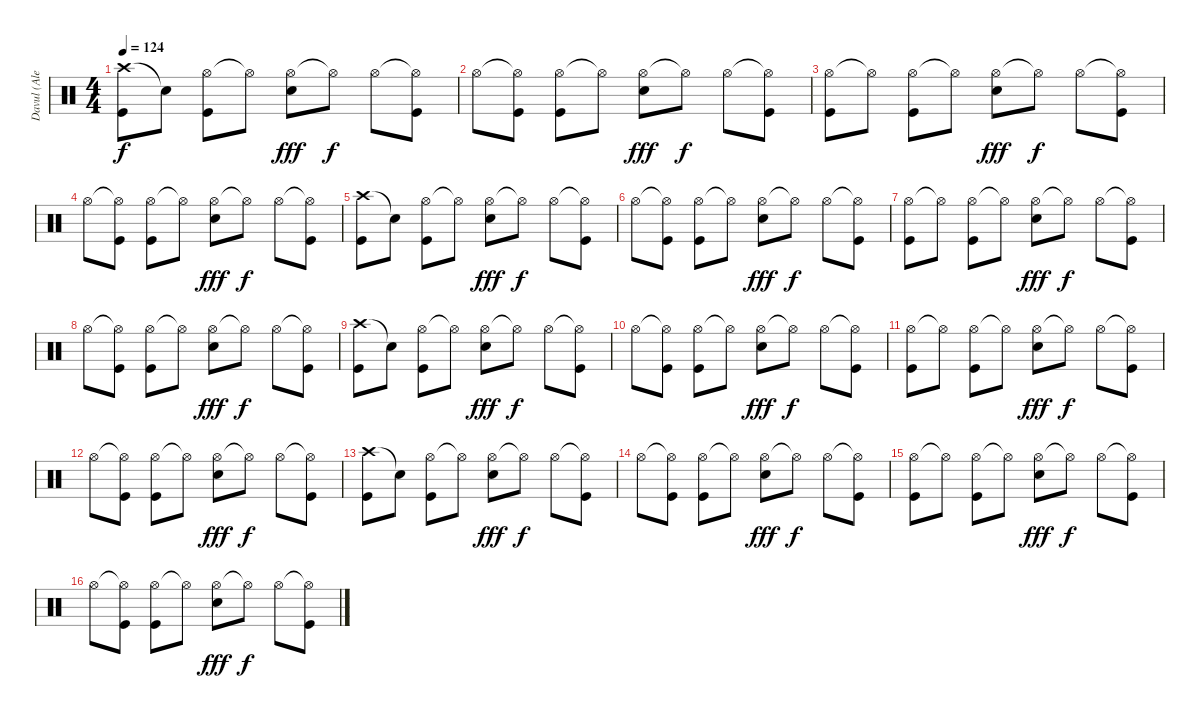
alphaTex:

\track ("Davul (Alen)" "Davul (Ale") {instrument percussion}
\staff {score}
\articulation defaults
\ts (4 4)
\tempo 124
\clef neutral
\ks c
("Crash high (hit)" "Kick (hit)").8{dy f} "Snare (hit)"{t}.8 ("Hi-Hat (open)" "Kick (hit)").8 "Hi-Hat (open)"{t}.8 ("Hi-Hat (open)" "Electric Snare (hit)").8{dy fff} "Hi-Hat (open)"{t}.8{dy f} "Hi-Hat (open)".8 ("Hi-Hat (open)"{t} "Kick (hit)").8 |
"Hi-Hat (open)".8 ("Hi-Hat (open)"{t} "Kick (hit)").8 ("Hi-Hat (open)" "Kick (hit)").8 "Hi-Hat (open)"{t}.8 ("Hi-Hat (open)" "Electric Snare (hit)").8{dy fff} "Hi-Hat (open)"{t}.8{dy f} "Hi-Hat (open)".8 ("Hi-Hat (open)"{t} "Kick (hit)").8 |
("Hi-Hat (open)" "Kick (hit)").8 "Hi-Hat (open)"{t}.8 ("Hi-Hat (open)" "Kick (hit)").8 "Hi-Hat (open)"{t}.8 ("Hi-Hat (open)" "Electric Snare (hit)").8{dy fff} "Hi-Hat (open)"{t}.8{dy f} "Hi-Hat (open)".8 ("Hi-Hat (open)"{t} "Kick (hit)").8 |
"Hi-Hat (open)".8 ("Hi-Hat (open)"{t} "Kick (hit)").8 ("Hi-Hat (open)" "Kick (hit)").8 "Hi-Hat (open)"{t}.8 ("Hi-Hat (open)" "Electric Snare (hit)").8{dy fff} "Hi-Hat (open)"{t}.8{dy f} "Hi-Hat (open)".8 ("Hi-Hat (open)"{t} "Kick (hit)").8 |
("Crash high (hit)" "Kick (hit)").8 "Snare (hit)"{t}.8 ("Hi-Hat (open)" "Kick (hit)").8 "Hi-Hat (open)"{t}.8 ("Hi-Hat (open)" "Electric Snare (hit)").8{dy fff} "Hi-Hat (open)"{t}.8{dy f} "Hi-Hat (open)".8 ("Hi-Hat (open)"{t} "Kick (hit)").8 |
"Hi-Hat (open)".8 ("Hi-Hat (open)"{t} "Kick (hit)").8 ("Hi-Hat (open)" "Kick (hit)").8 "Hi-Hat (open)"{t}.8 ("Hi-Hat (open)" "Electric Snare (hit)").8{dy fff} "Hi-Hat (open)"{t}.8{dy f} "Hi-Hat (open)".8 ("Hi-Hat (open)"{t} "Kick (hit)").8 |
("Hi-Hat (open)" "Kick (hit)").8 "Hi-Hat (open)"{t}.8 ("Hi-Hat (open)" "Kick (hit)").8 "Hi-Hat (open)"{t}.8 ("Hi-Hat (open)" "Electric Snare (hit)").8{dy fff} "Hi-Hat (open)"{t}.8{dy f} "Hi-Hat (open)".8 ("Hi-Hat (open)"{t} "Kick (hit)").8 |
"Hi-Hat (open)".8 ("Hi-Hat (open)"{t} "Kick (hit)").8 ("Hi-Hat (open)" "Kick (hit)").8 "Hi-Hat (open)"{t}.8 ("Hi-Hat (open)" "Electric Snare (hit)").8{dy fff} "Hi-Hat (open)"{t}.8{dy f} "Hi-Hat (open)".8 ("Hi-Hat (open)"{t} "Kick (hit)").8 |
("Crash high (hit)" "Kick (hit)").8 "Snare (hit)"{t}.8 ("Hi-Hat (open)" "Kick (hit)").8 "Hi-Hat (open)"{t}.8 ("Hi-Hat (open)" "Electric Snare (hit)").8{dy fff} "Hi-Hat (open)"{t}.8{dy f} "Hi-Hat (open)".8 ("Hi-Hat (open)"{t} "Kick (hit)").8 |
"Hi-Hat (open)".8 ("Hi-Hat (open)"{t} "Kick (hit)").8 ("Hi-Hat (open)" "Kick (hit)").8 "Hi-Hat (open)"{t}.8 ("Hi-Hat (open)" "Electric Snare (hit)").8{dy fff} "Hi-Hat (open)"{t}.8{dy f} "Hi-Hat (open)".8 ("Hi-Hat (open)"{t} "Kick (hit)").8 |
("Hi-Hat (open)" "Kick (hit)").8 "Hi-Hat (open)"{t}.8 ("Hi-Hat (open)" "Kick (hit)").8 "Hi-Hat (open)"{t}.8 ("Hi-Hat (open)" "Electric Snare (hit)").8{dy fff} "Hi-Hat (open)"{t}.8{dy f} "Hi-Hat (open)".8 ("Hi-Hat (open)"{t} "Kick (hit)").8 |
"Hi-Hat (open)".8 ("Hi-Hat (open)"{t} "Kick (hit)").8 ("Hi-Hat (open)" "Kick (hit)").8 "Hi-Hat (open)"{t}.8 ("Hi-Hat (open)" "Electric Snare (hit)").8{dy fff} "Hi-Hat (open)"{t}.8{dy f} "Hi-Hat (open)".8 ("Hi-Hat (open)"{t} "Kick (hit)").8 |
("Crash high (hit)" "Kick (hit)").8{volume 8} "Snare (hit)"{t}.8 ("Hi-Hat (open)" "Kick (hit)").8 "Hi-Hat (open)"{t}.8 ("Hi-Hat (open)" "Electric Snare (hit)").8{dy fff} "Hi-Hat (open)"{t}.8{dy f} "Hi-Hat (open)".8 ("Hi-Hat (open)"{t} "Kick (hit)").8 |
"Hi-Hat (open)".8 ("Hi-Hat (open)"{t} "Kick (hit)").8 ("Hi-Hat (open)" "Kick (hit)").8 "Hi-Hat (open)"{t}.8 ("Hi-Hat (open)" "Electric Snare (hit)").8{dy fff} "Hi-Hat (open)"{t}.8{dy f} "Hi-Hat (open)".8 ("Hi-Hat (open)"{t} "Kick (hit)").8 |
("Hi-Hat (open)" "Kick (hit)").8 "Hi-Hat (open)"{t}.8 ("Hi-Hat (open)" "Kick (hit)").8 "Hi-Hat (open)"{t}.8 ("Hi-Hat (open)" "Electric Snare (hit)").8{dy fff} "Hi-Hat (open)"{t}.8{dy f} "Hi-Hat (open)".8 ("Hi-Hat (open)"{t} "Kick (hit)").8 |
"Hi-Hat (open)".8 ("Hi-Hat (open)"{t} "Kick (hit)").8 ("Hi-Hat (open)" "Kick (hit)").8 "Hi-Hat (open)"{t}.8 ("Hi-Hat (open)" "Electric Snare (hit)").8{dy fff} "Hi-Hat (open)"{t}.8{dy f} "Hi-Hat (open)".8 ("Hi-Hat (open)"{t} "Kick (hit)").8
